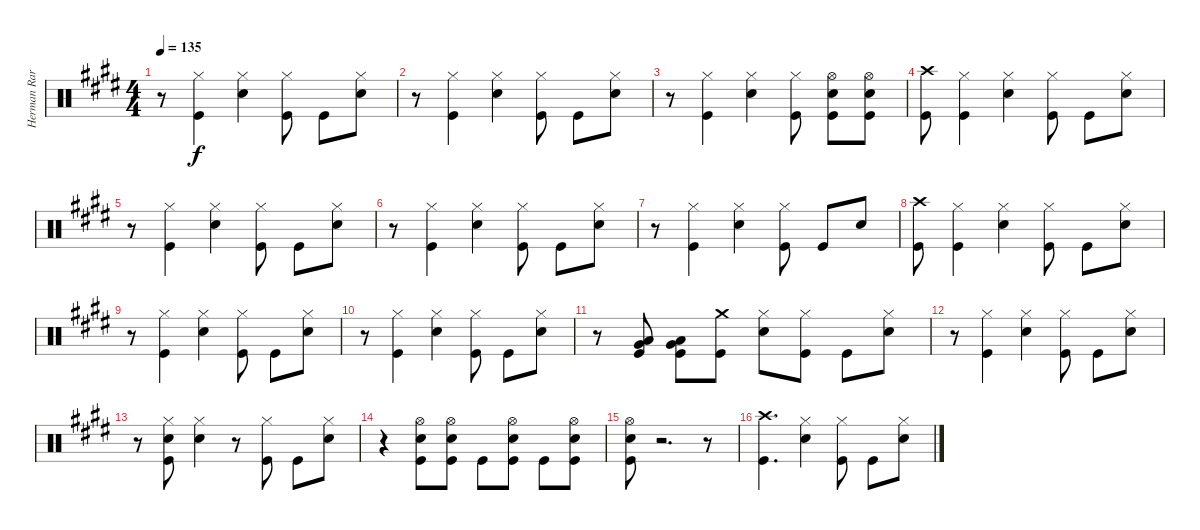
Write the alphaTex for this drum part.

\track ("Herman Rarebell Drums" "Herman Rar") {instrument percussion}
\staff {score}
\articulation defaults
\ts (4 4)
\tempo 135
\clef neutral
\ks e
r.8{dy f} ("Hi-Hat (closed)" "Kick (hit)").4 ("Hi-Hat (closed)" "Snare (hit) 2").4 ("Hi-Hat (closed)" "Kick (hit)").8 "Kick (hit)".8 ("Hi-Hat (closed)" "Snare (hit) 2").8 |
r.8 ("Hi-Hat (closed)" "Kick (hit)").4 ("Hi-Hat (closed)" "Snare (hit) 2").4 ("Hi-Hat (closed)" "Kick (hit)").8 "Kick (hit)".8 ("Hi-Hat (closed)" "Snare (hit) 2").8 |
r.8 ("Hi-Hat (closed)" "Kick (hit)").4 ("Hi-Hat (closed)" "Snare (hit) 2").4 ("Hi-Hat (closed)" "Kick (hit)").8 ("Hi-Hat (open)" "Snare (hit) 2" "Kick (hit)").8 ("Hi-Hat (open)" "Snare (hit) 2" "Kick (hit)").8 |
("Crash high (hit)" "Kick (hit)").8 ("Hi-Hat (closed)" "Kick (hit)").4 ("Hi-Hat (closed)" "Snare (hit) 2").4 ("Hi-Hat (closed)" "Kick (hit)").8 "Kick (hit)".8 ("Hi-Hat (closed)" "Snare (hit) 2").8 |
r.8 ("Hi-Hat (closed)" "Kick (hit)").4 ("Hi-Hat (closed)" "Snare (hit) 2").4 ("Hi-Hat (closed)" "Kick (hit)").8 "Kick (hit)".8 ("Hi-Hat (closed)" "Snare (hit) 2").8 |
r.8 ("Hi-Hat (closed)" "Kick (hit)").4 ("Hi-Hat (closed)" "Snare (hit) 2").4 ("Hi-Hat (closed)" "Kick (hit)").8 "Kick (hit)".8 ("Hi-Hat (closed)" "Snare (hit) 2").8 |
r.8 ("Hi-Hat (closed)" "Kick (hit)").4 ("Hi-Hat (closed)" "Snare (hit) 2").4 ("Hi-Hat (closed)" "Kick (hit)").8 "Kick (hit)".8 "Snare (hit) 2".8 |
("Crash high (hit)" "Kick (hit)").8 ("Hi-Hat (closed)" "Kick (hit)").4 ("Hi-Hat (closed)" "Snare (hit) 2").4 ("Hi-Hat (closed)" "Kick (hit)").8 "Kick (hit)".8 ("Hi-Hat (closed)" "Snare (hit) 2").8 |
r.8 ("Hi-Hat (closed)" "Kick (hit)").4 ("Hi-Hat (closed)" "Snare (hit) 2").4 ("Hi-Hat (closed)" "Kick (hit)").8 "Kick (hit)".8 ("Hi-Hat (closed)" "Snare (hit) 2").8 |
r.8 ("Hi-Hat (closed)" "Kick (hit)").4 ("Hi-Hat (closed)" "Snare (hit) 2").4 ("Hi-Hat (closed)" "Kick (hit)").8 "Kick (hit)".8 ("Hi-Hat (closed)" "Snare (hit) 2").8 |
r.8 ("Very Low Tom (hit)" "Low Floor Tom (hit)" "Kick (hit)").8 ("Very Low Tom (hit)" "Low Floor Tom (hit)" "Kick (hit)").8 ("Crash medium (hit)" "Kick (hit)").8 ("Hi-Hat (closed)" "Snare (hit) 2").8 ("Hi-Hat (closed)" "Kick (hit)").8 "Kick (hit)".8 ("Hi-Hat (closed)" "Snare (hit) 2").8 |
r.8 ("Hi-Hat (closed)" "Kick (hit)").4 ("Hi-Hat (closed)" "Snare (hit) 2").4 ("Hi-Hat (closed)" "Kick (hit)").8 "Kick (hit)".8 ("Hi-Hat (closed)" "Snare (hit) 2").8 |
r.8 ("Hi-Hat (closed)" "Snare (hit) 2" "Kick (hit)").8 ("Hi-Hat (closed)" "Snare (hit) 2").4 r.8 ("Hi-Hat (closed)" "Kick (hit)").8 "Kick (hit)".8 ("Hi-Hat (closed)" "Snare (hit) 2").8 |
r.4 ("Hi-Hat (open)" "Snare (hit) 2" "Kick (hit)").8 ("Hi-Hat (open)" "Snare (hit) 2" "Kick (hit)").8 "Kick (hit)".8 ("Hi-Hat (open)" "Snare (hit) 2" "Kick (hit)").8 "Kick (hit)".8 ("Hi-Hat (open)" "Snare (hit) 2" "Kick (hit)").8 |
("Hi-Hat (open)" "Snare (hit) 2" "Kick (hit)").8 r.2{d} r.8 |
("Crash high (hit)" "Kick (hit)").4{d} ("Hi-Hat (closed)" "Snare (hit) 2").4 ("Hi-Hat (closed)" "Kick (hit)").8 "Kick (hit)".8 ("Hi-Hat (closed)" "Snare (hit) 2").8
